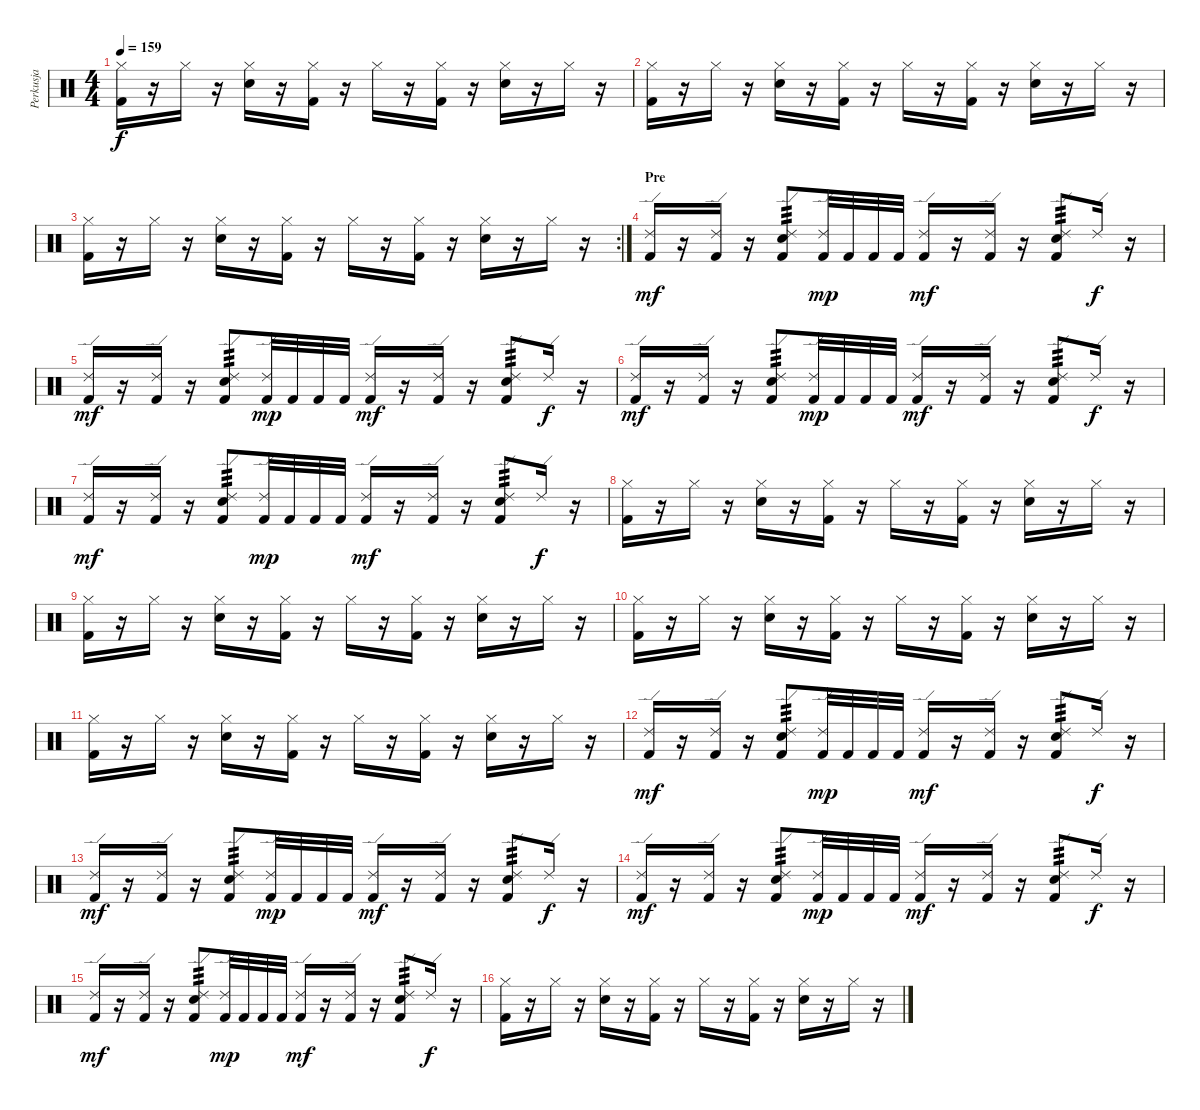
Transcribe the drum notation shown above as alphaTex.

\track ("Perkusja" "Perkusja") {instrument percussion}
\staff {score}
\articulation defaults
\ts (4 4)
\tempo 159
\clef neutral
\ks c
("Hi-Hat (closed)" "Kick (hit) 2").16{dy f} r.16 "Hi-Hat (closed)".16 r.16 ("Hi-Hat (closed)" "Electric Snare (hit)").16 r.16 ("Hi-Hat (closed)" "Kick (hit) 2").16 r.16 "Hi-Hat (closed)".16 r.16 ("Hi-Hat (closed)" "Kick (hit) 2").16 r.16 ("Hi-Hat (closed)" "Electric Snare (hit)").16 r.16 "Hi-Hat (closed)".16 r.16 |
("Hi-Hat (closed)" "Kick (hit) 2").16 r.16 "Hi-Hat (closed)".16 r.16 ("Hi-Hat (closed)" "Electric Snare (hit)").16 r.16 ("Hi-Hat (closed)" "Kick (hit) 2").16 r.16 "Hi-Hat (closed)".16 r.16 ("Hi-Hat (closed)" "Kick (hit) 2").16 r.16 ("Hi-Hat (closed)" "Electric Snare (hit)").16 r.16 "Hi-Hat (closed)".16 r.16 |
\rc 2
("Hi-Hat (closed)" "Kick (hit) 2").16 r.16 "Hi-Hat (closed)".16 r.16 ("Hi-Hat (closed)" "Electric Snare (hit)").16 r.16 ("Hi-Hat (closed)" "Kick (hit) 2").16 r.16 "Hi-Hat (closed)".16 r.16 ("Hi-Hat (closed)" "Kick (hit) 2").16 r.16 ("Hi-Hat (closed)" "Electric Snare (hit)").16 r.16 "Hi-Hat (closed)".16 r.16 |
\section ("" "Pre")
("Ride (edge) 2" "Kick (hit) 2").16{dy mf} r.16 ("Ride (edge) 2" "Kick (hit) 2").16 r.16 ("Ride (edge) 2" "Electric Snare (hit)" "Kick (hit) 2").8{tp 3} ("Ride (edge) 2" "Kick (hit) 2").32{dy mp} "Kick (hit) 2".32 "Kick (hit) 2".32 "Kick (hit) 2".32 ("Ride (edge) 2" "Kick (hit) 2").16{dy mf} r.16 ("Ride (edge) 2" "Kick (hit) 2").16 r.16 ("Ride (edge) 2" "Electric Snare (hit)" "Kick (hit) 2").8{tp 3} "Ride (edge) 2".16{dy f} r.16 |
("Ride (edge) 2" "Kick (hit) 2").16{dy mf} r.16 ("Ride (edge) 2" "Kick (hit) 2").16 r.16 ("Ride (edge) 2" "Electric Snare (hit)" "Kick (hit) 2").8{tp 3} ("Ride (edge) 2" "Kick (hit) 2").32{dy mp} "Kick (hit) 2".32 "Kick (hit) 2".32 "Kick (hit) 2".32 ("Ride (edge) 2" "Kick (hit) 2").16{dy mf} r.16 ("Ride (edge) 2" "Kick (hit) 2").16 r.16 ("Ride (edge) 2" "Electric Snare (hit)" "Kick (hit) 2").8{tp 3} "Ride (edge) 2".16{dy f} r.16 |
("Ride (edge) 2" "Kick (hit) 2").16{dy mf} r.16 ("Ride (edge) 2" "Kick (hit) 2").16 r.16 ("Ride (edge) 2" "Electric Snare (hit)" "Kick (hit) 2").8{tp 3} ("Ride (edge) 2" "Kick (hit) 2").32{dy mp} "Kick (hit) 2".32 "Kick (hit) 2".32 "Kick (hit) 2".32 ("Ride (edge) 2" "Kick (hit) 2").16{dy mf} r.16 ("Ride (edge) 2" "Kick (hit) 2").16 r.16 ("Ride (edge) 2" "Electric Snare (hit)" "Kick (hit) 2").8{tp 3} "Ride (edge) 2".16{dy f} r.16 |
("Ride (edge) 2" "Kick (hit) 2").16{dy mf} r.16 ("Ride (edge) 2" "Kick (hit) 2").16 r.16 ("Ride (edge) 2" "Electric Snare (hit)" "Kick (hit) 2").8{tp 3} ("Ride (edge) 2" "Kick (hit) 2").32{dy mp} "Kick (hit) 2".32 "Kick (hit) 2".32 "Kick (hit) 2".32 ("Ride (edge) 2" "Kick (hit) 2").16{dy mf} r.16 ("Ride (edge) 2" "Kick (hit) 2").16 r.16 ("Ride (edge) 2" "Electric Snare (hit)" "Kick (hit) 2").8{tp 3} "Ride (edge) 2".16{dy f} r.16 |
("Hi-Hat (closed)" "Kick (hit) 2").16 r.16 "Hi-Hat (closed)".16 r.16 ("Hi-Hat (closed)" "Electric Snare (hit)").16 r.16 ("Hi-Hat (closed)" "Kick (hit) 2").16 r.16 "Hi-Hat (closed)".16 r.16 ("Hi-Hat (closed)" "Kick (hit) 2").16 r.16 ("Hi-Hat (closed)" "Electric Snare (hit)").16 r.16 "Hi-Hat (closed)".16 r.16 |
("Hi-Hat (closed)" "Kick (hit) 2").16 r.16 "Hi-Hat (closed)".16 r.16 ("Hi-Hat (closed)" "Electric Snare (hit)").16 r.16 ("Hi-Hat (closed)" "Kick (hit) 2").16 r.16 "Hi-Hat (closed)".16 r.16 ("Hi-Hat (closed)" "Kick (hit) 2").16 r.16 ("Hi-Hat (closed)" "Electric Snare (hit)").16 r.16 "Hi-Hat (closed)".16 r.16 |
("Hi-Hat (closed)" "Kick (hit) 2").16 r.16 "Hi-Hat (closed)".16 r.16 ("Hi-Hat (closed)" "Electric Snare (hit)").16 r.16 ("Hi-Hat (closed)" "Kick (hit) 2").16 r.16 "Hi-Hat (closed)".16 r.16 ("Hi-Hat (closed)" "Kick (hit) 2").16 r.16 ("Hi-Hat (closed)" "Electric Snare (hit)").16 r.16 "Hi-Hat (closed)".16 r.16 |
("Hi-Hat (closed)" "Kick (hit) 2").16 r.16 "Hi-Hat (closed)".16 r.16 ("Hi-Hat (closed)" "Electric Snare (hit)").16 r.16 ("Hi-Hat (closed)" "Kick (hit) 2").16 r.16 "Hi-Hat (closed)".16 r.16 ("Hi-Hat (closed)" "Kick (hit) 2").16 r.16 ("Hi-Hat (closed)" "Electric Snare (hit)").16 r.16 "Hi-Hat (closed)".16 r.16 |
("Ride (edge) 2" "Kick (hit) 2").16{dy mf} r.16 ("Ride (edge) 2" "Kick (hit) 2").16 r.16 ("Ride (edge) 2" "Electric Snare (hit)" "Kick (hit) 2").8{tp 3} ("Ride (edge) 2" "Kick (hit) 2").32{dy mp} "Kick (hit) 2".32 "Kick (hit) 2".32 "Kick (hit) 2".32 ("Ride (edge) 2" "Kick (hit) 2").16{dy mf} r.16 ("Ride (edge) 2" "Kick (hit) 2").16 r.16 ("Ride (edge) 2" "Electric Snare (hit)" "Kick (hit) 2").8{tp 3} "Ride (edge) 2".16{dy f} r.16 |
("Ride (edge) 2" "Kick (hit) 2").16{dy mf} r.16 ("Ride (edge) 2" "Kick (hit) 2").16 r.16 ("Ride (edge) 2" "Electric Snare (hit)" "Kick (hit) 2").8{tp 3} ("Ride (edge) 2" "Kick (hit) 2").32{dy mp} "Kick (hit) 2".32 "Kick (hit) 2".32 "Kick (hit) 2".32 ("Ride (edge) 2" "Kick (hit) 2").16{dy mf} r.16 ("Ride (edge) 2" "Kick (hit) 2").16 r.16 ("Ride (edge) 2" "Electric Snare (hit)" "Kick (hit) 2").8{tp 3} "Ride (edge) 2".16{dy f} r.16 |
("Ride (edge) 2" "Kick (hit) 2").16{dy mf} r.16 ("Ride (edge) 2" "Kick (hit) 2").16 r.16 ("Ride (edge) 2" "Electric Snare (hit)" "Kick (hit) 2").8{tp 3} ("Ride (edge) 2" "Kick (hit) 2").32{dy mp} "Kick (hit) 2".32 "Kick (hit) 2".32 "Kick (hit) 2".32 ("Ride (edge) 2" "Kick (hit) 2").16{dy mf} r.16 ("Ride (edge) 2" "Kick (hit) 2").16 r.16 ("Ride (edge) 2" "Electric Snare (hit)" "Kick (hit) 2").8{tp 3} "Ride (edge) 2".16{dy f} r.16 |
("Ride (edge) 2" "Kick (hit) 2").16{dy mf} r.16 ("Ride (edge) 2" "Kick (hit) 2").16 r.16 ("Ride (edge) 2" "Electric Snare (hit)" "Kick (hit) 2").8{tp 3} ("Ride (edge) 2" "Kick (hit) 2").32{dy mp} "Kick (hit) 2".32 "Kick (hit) 2".32 "Kick (hit) 2".32 ("Ride (edge) 2" "Kick (hit) 2").16{dy mf} r.16 ("Ride (edge) 2" "Kick (hit) 2").16 r.16 ("Ride (edge) 2" "Electric Snare (hit)" "Kick (hit) 2").8{tp 3} "Ride (edge) 2".16{dy f} r.16 |
("Hi-Hat (closed)" "Kick (hit) 2").16 r.16 "Hi-Hat (closed)".16 r.16 ("Hi-Hat (closed)" "Electric Snare (hit)").16 r.16 ("Hi-Hat (closed)" "Kick (hit) 2").16 r.16 "Hi-Hat (closed)".16 r.16 ("Hi-Hat (closed)" "Kick (hit) 2").16 r.16 ("Hi-Hat (closed)" "Electric Snare (hit)").16 r.16 "Hi-Hat (closed)".16 r.16
